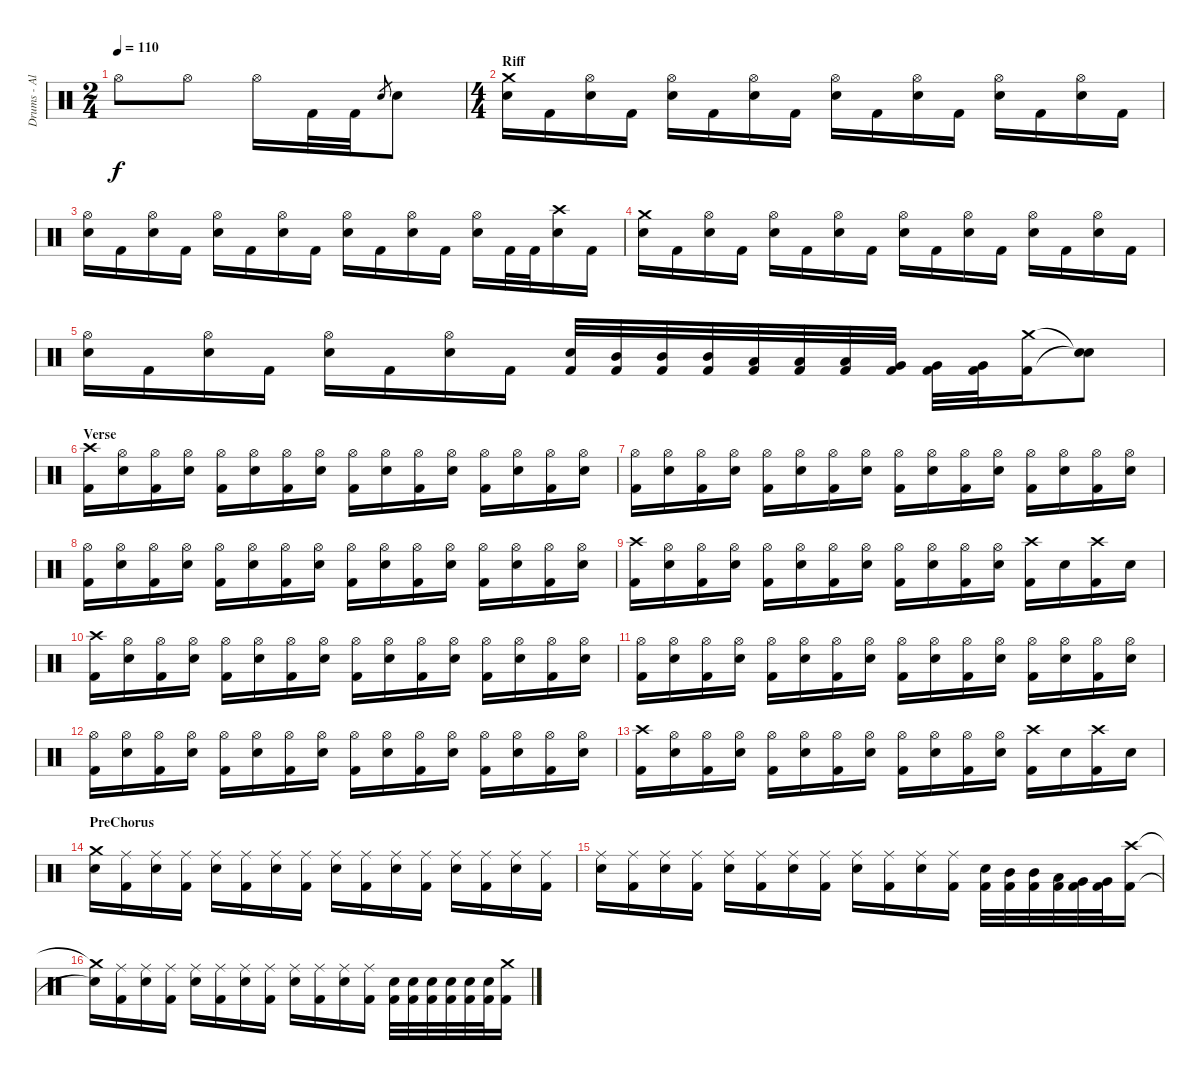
\track ("Drums - Albin" "Drums - Al") {instrument percussion}
\staff {score}
\articulation defaults
\ts (2 4)
\tempo 110
\clef neutral
\ks c "Hi-Hat (open)".8{dy f} "Hi-Hat (open)".8 "Hi-Hat (open)".16 "Kick (hit) 2".32 "Kick (hit) 2".32 "Snare (hit) 2".8{gr} "Snare (hit) 2".8
|
\ts (4 4)
\section ("" "Riff")
("Crash medium (hit)" "Snare (hit) 2").16 "Kick (hit) 2".16 ("Hi-Hat (open)" "Snare (hit) 2").16 "Kick (hit) 2".16 ("Hi-Hat (open)" "Snare (hit) 2").16 "Kick (hit) 2".16 ("Hi-Hat (open)" "Snare (hit) 2").16 "Kick (hit) 2".16 ("Hi-Hat (open)" "Snare (hit) 2").16 "Kick (hit) 2".16 ("Hi-Hat (open)" "Snare (hit) 2").16 "Kick (hit) 2".16 ("Hi-Hat (open)" "Snare (hit) 2").16 "Kick (hit) 2".16 ("Hi-Hat (open)" "Snare (hit) 2").16 "Kick (hit) 2".16 |
("Hi-Hat (open)" "Snare (hit) 2").16 "Kick (hit) 2".16 ("Hi-Hat (open)" "Snare (hit) 2").16 "Kick (hit) 2".16 ("Hi-Hat (open)" "Snare (hit) 2").16 "Kick (hit) 2".16 ("Hi-Hat (open)" "Snare (hit) 2").16 "Kick (hit) 2".16 ("Hi-Hat (open)" "Snare (hit) 2").16 "Kick (hit) 2".16 ("Hi-Hat (open)" "Snare (hit) 2").16 "Kick (hit) 2".16 ("Hi-Hat (open)" "Snare (hit) 2").16 "Kick (hit) 2".32 "Kick (hit) 2".32 ("Crash high (hit)" "Snare (hit) 2").16 "Kick (hit) 2".16 |
("Crash medium (hit)" "Snare (hit) 2").16 "Kick (hit) 2".16 ("Hi-Hat (open)" "Snare (hit) 2").16 "Kick (hit) 2".16 ("Hi-Hat (open)" "Snare (hit) 2").16 "Kick (hit) 2".16 ("Hi-Hat (open)" "Snare (hit) 2").16 "Kick (hit) 2".16 ("Hi-Hat (open)" "Snare (hit) 2").16 "Kick (hit) 2".16 ("Hi-Hat (open)" "Snare (hit) 2").16 "Kick (hit) 2".16 ("Hi-Hat (open)" "Snare (hit) 2").16 "Kick (hit) 2".16 ("Hi-Hat (open)" "Snare (hit) 2").16 "Kick (hit) 2".16 |
("Hi-Hat (open)" "Snare (hit) 2").16 "Kick (hit) 2".16 ("Hi-Hat (open)" "Snare (hit) 2").16 "Kick (hit) 2".16 ("Hi-Hat (open)" "Snare (hit) 2").16 "Kick (hit) 2".16 ("Hi-Hat (open)" "Snare (hit) 2").16 "Kick (hit) 2".16 ("Snare (hit) 2" "Kick (hit) 2").32 ("Mid Tom (hit)" "Kick (hit) 2").32 ("Mid Tom (hit)" "Kick (hit) 2").32 ("Mid Tom (hit)" "Kick (hit) 2").32 ("Low Tom (hit)" "Kick (hit) 2").32 ("Low Tom (hit)" "Kick (hit) 2").32 ("Low Tom (hit)" "Kick (hit) 2").32 ("Very Low Tom (hit)" "Kick (hit) 2").32 ("Very Low Tom (hit)" "Kick (hit) 2").32 ("Very Low Tom (hit)" "Kick (hit) 2").32 ("Crash medium (hit)" "Kick (hit) 2").16 ("Snare (hit)"{t} "Snare (hit)"{t}).8 |
\section ("" "Verse")
("Crash high (hit)" "Kick (hit) 2").16 ("Hi-Hat (open)" "Snare (hit) 2").16 ("Hi-Hat (open)" "Kick (hit) 2").16 ("Hi-Hat (open)" "Snare (hit) 2").16 ("Hi-Hat (open)" "Kick (hit) 2").16 ("Hi-Hat (open)" "Snare (hit) 2").16 ("Hi-Hat (open)" "Kick (hit) 2").16 ("Hi-Hat (open)" "Snare (hit) 2").16 ("Hi-Hat (open)" "Kick (hit) 2").16 ("Hi-Hat (open)" "Snare (hit) 2").16 ("Hi-Hat (open)" "Kick (hit) 2").16 ("Hi-Hat (open)" "Snare (hit) 2").16 ("Hi-Hat (open)" "Kick (hit) 2").16 ("Hi-Hat (open)" "Snare (hit) 2").16 ("Hi-Hat (open)" "Kick (hit) 2").16 ("Hi-Hat (open)" "Snare (hit) 2").16 |
("Hi-Hat (open)" "Kick (hit) 2").16 ("Hi-Hat (open)" "Snare (hit) 2").16 ("Hi-Hat (open)" "Kick (hit) 2").16 ("Hi-Hat (open)" "Snare (hit) 2").16 ("Hi-Hat (open)" "Kick (hit) 2").16 ("Hi-Hat (open)" "Snare (hit) 2").16 ("Hi-Hat (open)" "Kick (hit) 2").16 ("Hi-Hat (open)" "Snare (hit) 2").16 ("Hi-Hat (open)" "Kick (hit) 2").16 ("Hi-Hat (open)" "Snare (hit) 2").16 ("Hi-Hat (open)" "Kick (hit) 2").16 ("Hi-Hat (open)" "Snare (hit) 2").16 ("Hi-Hat (open)" "Kick (hit) 2").16 ("Hi-Hat (open)" "Snare (hit) 2").16 ("Hi-Hat (open)" "Kick (hit) 2").16 ("Hi-Hat (open)" "Snare (hit) 2").16 |
("Hi-Hat (open)" "Kick (hit) 2").16 ("Hi-Hat (open)" "Snare (hit) 2").16 ("Hi-Hat (open)" "Kick (hit) 2").16 ("Hi-Hat (open)" "Snare (hit) 2").16 ("Hi-Hat (open)" "Kick (hit) 2").16 ("Hi-Hat (open)" "Snare (hit) 2").16 ("Hi-Hat (open)" "Kick (hit) 2").16 ("Hi-Hat (open)" "Snare (hit) 2").16 ("Hi-Hat (open)" "Kick (hit) 2").16 ("Hi-Hat (open)" "Snare (hit) 2").16 ("Hi-Hat (open)" "Kick (hit) 2").16 ("Hi-Hat (open)" "Snare (hit) 2").16 ("Hi-Hat (open)" "Kick (hit) 2").16 ("Hi-Hat (open)" "Snare (hit) 2").16 ("Hi-Hat (open)" "Kick (hit) 2").16 ("Hi-Hat (open)" "Snare (hit) 2").16 |
("Crash high (hit)" "Kick (hit) 2").16 ("Hi-Hat (open)" "Snare (hit) 2").16 ("Hi-Hat (open)" "Kick (hit) 2").16 ("Hi-Hat (open)" "Snare (hit) 2").16 ("Hi-Hat (open)" "Kick (hit) 2").16 ("Hi-Hat (open)" "Snare (hit) 2").16 ("Hi-Hat (open)" "Kick (hit) 2").16 ("Hi-Hat (open)" "Snare (hit) 2").16 ("Hi-Hat (open)" "Kick (hit) 2").16 ("Hi-Hat (open)" "Snare (hit) 2").16 ("Hi-Hat (open)" "Kick (hit) 2").16 ("Hi-Hat (open)" "Snare (hit) 2").16 ("Crash high (hit)" "Kick (hit) 2").16 "Snare (hit) 2".16 ("Crash high (hit)" "Kick (hit) 2").16 "Snare (hit) 2".16 |
("Crash high (hit)" "Kick (hit) 2").16 ("Hi-Hat (open)" "Snare (hit) 2").16 ("Hi-Hat (open)" "Kick (hit) 2").16 ("Hi-Hat (open)" "Snare (hit) 2").16 ("Hi-Hat (open)" "Kick (hit) 2").16 ("Hi-Hat (open)" "Snare (hit) 2").16 ("Hi-Hat (open)" "Kick (hit) 2").16 ("Hi-Hat (open)" "Snare (hit) 2").16 ("Hi-Hat (open)" "Kick (hit) 2").16 ("Hi-Hat (open)" "Snare (hit) 2").16 ("Hi-Hat (open)" "Kick (hit) 2").16 ("Hi-Hat (open)" "Snare (hit) 2").16 ("Hi-Hat (open)" "Kick (hit) 2").16 ("Hi-Hat (open)" "Snare (hit) 2").16 ("Hi-Hat (open)" "Kick (hit) 2").16 ("Hi-Hat (open)" "Snare (hit) 2").16 |
("Hi-Hat (open)" "Kick (hit) 2").16 ("Hi-Hat (open)" "Snare (hit) 2").16 ("Hi-Hat (open)" "Kick (hit) 2").16 ("Hi-Hat (open)" "Snare (hit) 2").16 ("Hi-Hat (open)" "Kick (hit) 2").16 ("Hi-Hat (open)" "Snare (hit) 2").16 ("Hi-Hat (open)" "Kick (hit) 2").16 ("Hi-Hat (open)" "Snare (hit) 2").16 ("Hi-Hat (open)" "Kick (hit) 2").16 ("Hi-Hat (open)" "Snare (hit) 2").16 ("Hi-Hat (open)" "Kick (hit) 2").16 ("Hi-Hat (open)" "Snare (hit) 2").16 ("Hi-Hat (open)" "Kick (hit) 2").16 ("Hi-Hat (open)" "Snare (hit) 2").16 ("Hi-Hat (open)" "Kick (hit) 2").16 ("Hi-Hat (open)" "Snare (hit) 2").16 |
("Hi-Hat (open)" "Kick (hit) 2").16 ("Hi-Hat (open)" "Snare (hit) 2").16 ("Hi-Hat (open)" "Kick (hit) 2").16 ("Hi-Hat (open)" "Snare (hit) 2").16 ("Hi-Hat (open)" "Kick (hit) 2").16 ("Hi-Hat (open)" "Snare (hit) 2").16 ("Hi-Hat (open)" "Kick (hit) 2").16 ("Hi-Hat (open)" "Snare (hit) 2").16 ("Hi-Hat (open)" "Kick (hit) 2").16 ("Hi-Hat (open)" "Snare (hit) 2").16 ("Hi-Hat (open)" "Kick (hit) 2").16 ("Hi-Hat (open)" "Snare (hit) 2").16 ("Hi-Hat (open)" "Kick (hit) 2").16 ("Hi-Hat (open)" "Snare (hit) 2").16 ("Hi-Hat (open)" "Kick (hit) 2").16 ("Hi-Hat (open)" "Snare (hit) 2").16 |
("Crash high (hit)" "Kick (hit) 2").16 ("Hi-Hat (open)" "Snare (hit) 2").16 ("Hi-Hat (open)" "Kick (hit) 2").16 ("Hi-Hat (open)" "Snare (hit) 2").16 ("Hi-Hat (open)" "Kick (hit) 2").16 ("Hi-Hat (open)" "Snare (hit) 2").16 ("Hi-Hat (open)" "Kick (hit) 2").16 ("Hi-Hat (open)" "Snare (hit) 2").16 ("Hi-Hat (open)" "Kick (hit) 2").16 ("Hi-Hat (open)" "Snare (hit) 2").16 ("Hi-Hat (open)" "Kick (hit) 2").16 ("Hi-Hat (open)" "Snare (hit) 2").16 ("Crash high (hit)" "Kick (hit) 2").16 "Snare (hit) 2".16 ("Crash high (hit)" "Kick (hit) 2").16 "Snare (hit) 2".16 |
\section ("" "PreChorus")
("Crash medium (hit)" "Snare (hit) 2").16 ("Ride (middle)" "Kick (hit) 2").16 ("Ride (middle)" "Snare (hit) 2").16 ("Ride (middle)" "Kick (hit) 2").16 ("Ride (middle)" "Snare (hit) 2").16 ("Ride (middle)" "Kick (hit) 2").16 ("Ride (middle)" "Snare (hit) 2").16 ("Ride (middle)" "Kick (hit) 2").16 ("Ride (middle)" "Snare (hit) 2").16 ("Ride (middle)" "Kick (hit) 2").16 ("Ride (middle)" "Snare (hit) 2").16 ("Ride (middle)" "Kick (hit) 2").16 ("Ride (middle)" "Snare (hit) 2").16 ("Ride (middle)" "Kick (hit) 2").16 ("Ride (middle)" "Snare (hit) 2").16 ("Ride (middle)" "Kick (hit) 2").16 |
("Ride (middle)" "Snare (hit) 2").16 ("Ride (middle)" "Kick (hit) 2").16 ("Ride (middle)" "Snare (hit) 2").16 ("Ride (middle)" "Kick (hit) 2").16 ("Ride (middle)" "Snare (hit) 2").16 ("Ride (middle)" "Kick (hit) 2").16 ("Ride (middle)" "Snare (hit) 2").16 ("Ride (middle)" "Kick (hit) 2").16 ("Ride (middle)" "Snare (hit) 2").16 ("Ride (middle)" "Kick (hit) 2").16 ("Ride (middle)" "Snare (hit) 2").16 ("Ride (middle)" "Kick (hit) 2").16 ("Snare (hit) 2" "Kick (hit) 2").32 ("Mid Tom (hit)" "Kick (hit) 2").32 ("Mid Tom (hit)" "Kick (hit) 2").32 ("Low Tom (hit)" "Kick (hit) 2").32 ("Very Low Tom (hit)" "Kick (hit) 2").32 ("Very Low Tom (hit)" "Kick (hit) 2").32 ("Crash high (hit)" "Kick (hit) 2").16 |
("Crash medium (hit)"{t} "Snare (hit)"{t}).16 ("Ride (middle)" "Kick (hit) 2").16 ("Ride (middle)" "Snare (hit) 2").16 ("Ride (middle)" "Kick (hit) 2").16 ("Ride (middle)" "Snare (hit) 2").16 ("Ride (middle)" "Kick (hit) 2").16 ("Ride (middle)" "Snare (hit) 2").16 ("Ride (middle)" "Kick (hit) 2").16 ("Ride (middle)" "Snare (hit) 2").16 ("Ride (middle)" "Kick (hit) 2").16 ("Ride (middle)" "Snare (hit) 2").16 ("Ride (middle)" "Kick (hit) 2").16 ("Snare (hit) 2" "Kick (hit) 2").32 ("Snare (hit) 2" "Kick (hit) 2").32 ("Snare (hit) 2" "Kick (hit) 2").32 ("Snare (hit) 2" "Kick (hit) 2").32 ("Snare (hit) 2" "Kick (hit) 2").32 ("Snare (hit) 2" "Kick (hit) 2").32 ("Crash medium (hit)" "Kick (hit) 2").16
